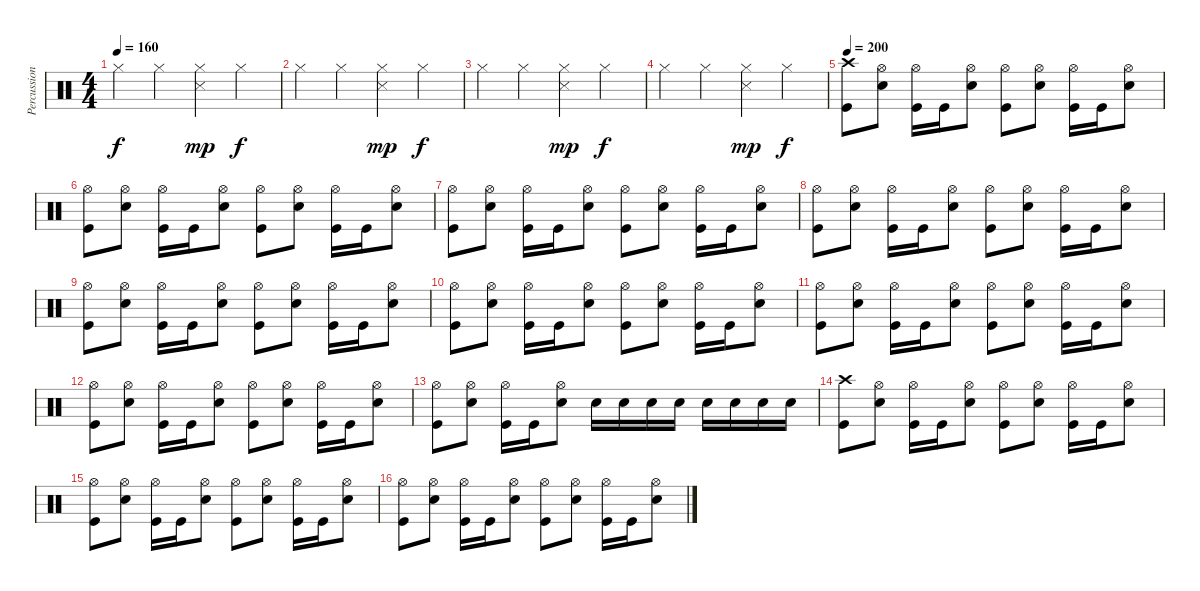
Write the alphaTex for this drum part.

\track ("Percussion" "Percussion") {instrument percussion}
\staff {score}
\articulation defaults
\ts (4 4)
\tempo 160
\clef neutral
\ks c "Hi-Hat (closed)".4{dy f} "Hi-Hat (closed)".4
("Hi-Hat (closed)" "Snare (side stick) 3").4{dy mp} "Hi-Hat (closed)".4{dy f} |
"Hi-Hat (closed)".4 "Hi-Hat (closed)".4 ("Hi-Hat (closed)" "Snare (side stick) 3").4{dy mp} "Hi-Hat (closed)".4{dy f} |
"Hi-Hat (closed)".4 "Hi-Hat (closed)".4 ("Hi-Hat (closed)" "Snare (side stick) 3").4{dy mp} "Hi-Hat (closed)".4{dy f} |
"Hi-Hat (closed)".4 "Hi-Hat (closed)".4 ("Hi-Hat (closed)" "Snare (side stick) 3").4{dy mp} "Hi-Hat (closed)".4{dy f} |
\tempo 200
("Crash high (hit)" "Kick (hit)").8 ("Hi-Hat (open)" "Electric Snare (hit)").8 ("Hi-Hat (open)" "Kick (hit)").16 "Kick (hit)".16 ("Hi-Hat (open)" "Electric Snare (hit)").8 ("Hi-Hat (open)" "Kick (hit)").8 ("Hi-Hat (open)" "Electric Snare (hit)").8 ("Hi-Hat (open)" "Kick (hit)").16 "Kick (hit)".16 ("Hi-Hat (open)" "Electric Snare (hit)").8 |
("Hi-Hat (open)" "Kick (hit)").8 ("Hi-Hat (open)" "Electric Snare (hit)").8 ("Hi-Hat (open)" "Kick (hit)").16 "Kick (hit)".16 ("Hi-Hat (open)" "Electric Snare (hit)").8 ("Hi-Hat (open)" "Kick (hit)").8 ("Hi-Hat (open)" "Electric Snare (hit)").8 ("Hi-Hat (open)" "Kick (hit)").16 "Kick (hit)".16 ("Hi-Hat (open)" "Electric Snare (hit)").8 |
("Hi-Hat (open)" "Kick (hit)").8 ("Hi-Hat (open)" "Electric Snare (hit)").8 ("Hi-Hat (open)" "Kick (hit)").16 "Kick (hit)".16 ("Hi-Hat (open)" "Electric Snare (hit)").8 ("Hi-Hat (open)" "Kick (hit)").8 ("Hi-Hat (open)" "Electric Snare (hit)").8 ("Hi-Hat (open)" "Kick (hit)").16 "Kick (hit)".16 ("Hi-Hat (open)" "Electric Snare (hit)").8 |
("Hi-Hat (open)" "Kick (hit)").8 ("Hi-Hat (open)" "Electric Snare (hit)").8 ("Hi-Hat (open)" "Kick (hit)").16 "Kick (hit)".16 ("Hi-Hat (open)" "Electric Snare (hit)").8 ("Hi-Hat (open)" "Kick (hit)").8 ("Hi-Hat (open)" "Electric Snare (hit)").8 ("Hi-Hat (open)" "Kick (hit)").16 "Kick (hit)".16 ("Hi-Hat (open)" "Electric Snare (hit)").8 |
("Hi-Hat (open)" "Kick (hit)").8 ("Hi-Hat (open)" "Electric Snare (hit)").8 ("Hi-Hat (open)" "Kick (hit)").16 "Kick (hit)".16 ("Hi-Hat (open)" "Electric Snare (hit)").8 ("Hi-Hat (open)" "Kick (hit)").8 ("Hi-Hat (open)" "Electric Snare (hit)").8 ("Hi-Hat (open)" "Kick (hit)").16 "Kick (hit)".16 ("Hi-Hat (open)" "Electric Snare (hit)").8 |
("Hi-Hat (open)" "Kick (hit)").8 ("Hi-Hat (open)" "Electric Snare (hit)").8 ("Hi-Hat (open)" "Kick (hit)").16 "Kick (hit)".16 ("Hi-Hat (open)" "Electric Snare (hit)").8 ("Hi-Hat (open)" "Kick (hit)").8 ("Hi-Hat (open)" "Electric Snare (hit)").8 ("Hi-Hat (open)" "Kick (hit)").16 "Kick (hit)".16 ("Hi-Hat (open)" "Electric Snare (hit)").8 |
("Hi-Hat (open)" "Kick (hit)").8 ("Hi-Hat (open)" "Electric Snare (hit)").8 ("Hi-Hat (open)" "Kick (hit)").16 "Kick (hit)".16 ("Hi-Hat (open)" "Electric Snare (hit)").8 ("Hi-Hat (open)" "Kick (hit)").8 ("Hi-Hat (open)" "Electric Snare (hit)").8 ("Hi-Hat (open)" "Kick (hit)").16 "Kick (hit)".16 ("Hi-Hat (open)" "Electric Snare (hit)").8 |
("Hi-Hat (open)" "Kick (hit)").8 ("Hi-Hat (open)" "Electric Snare (hit)").8 ("Hi-Hat (open)" "Kick (hit)").16 "Kick (hit)".16 ("Hi-Hat (open)" "Electric Snare (hit)").8 ("Hi-Hat (open)" "Kick (hit)").8 ("Hi-Hat (open)" "Electric Snare (hit)").8 ("Hi-Hat (open)" "Kick (hit)").16 "Kick (hit)".16 ("Hi-Hat (open)" "Electric Snare (hit)").8 |
("Hi-Hat (open)" "Kick (hit)").8 ("Hi-Hat (open)" "Electric Snare (hit)").8 ("Hi-Hat (open)" "Kick (hit)").16 "Kick (hit)".16 ("Hi-Hat (open)" "Electric Snare (hit)").8 "Electric Snare (hit)".16 "Electric Snare (hit)".16 "Electric Snare (hit)".16 "Electric Snare (hit)".16 "Electric Snare (hit)".16 "Electric Snare (hit)".16 "Electric Snare (hit)".16 "Electric Snare (hit)".16 |
("Crash high (hit)" "Kick (hit)").8 ("Hi-Hat (open)" "Electric Snare (hit)").8 ("Hi-Hat (open)" "Kick (hit)").16 "Kick (hit)".16 ("Hi-Hat (open)" "Electric Snare (hit)").8 ("Hi-Hat (open)" "Kick (hit)").8 ("Hi-Hat (open)" "Electric Snare (hit)").8 ("Hi-Hat (open)" "Kick (hit)").16 "Kick (hit)".16 ("Hi-Hat (open)" "Electric Snare (hit)").8 |
("Hi-Hat (open)" "Kick (hit)").8 ("Hi-Hat (open)" "Electric Snare (hit)").8 ("Hi-Hat (open)" "Kick (hit)").16 "Kick (hit)".16 ("Hi-Hat (open)" "Electric Snare (hit)").8 ("Hi-Hat (open)" "Kick (hit)").8 ("Hi-Hat (open)" "Electric Snare (hit)").8 ("Hi-Hat (open)" "Kick (hit)").16 "Kick (hit)".16 ("Hi-Hat (open)" "Electric Snare (hit)").8 |
("Hi-Hat (open)" "Kick (hit)").8 ("Hi-Hat (open)" "Electric Snare (hit)").8 ("Hi-Hat (open)" "Kick (hit)").16 "Kick (hit)".16 ("Hi-Hat (open)" "Electric Snare (hit)").8 ("Hi-Hat (open)" "Kick (hit)").8 ("Hi-Hat (open)" "Electric Snare (hit)").8 ("Hi-Hat (open)" "Kick (hit)").16 "Kick (hit)".16 ("Hi-Hat (open)" "Electric Snare (hit)").8
